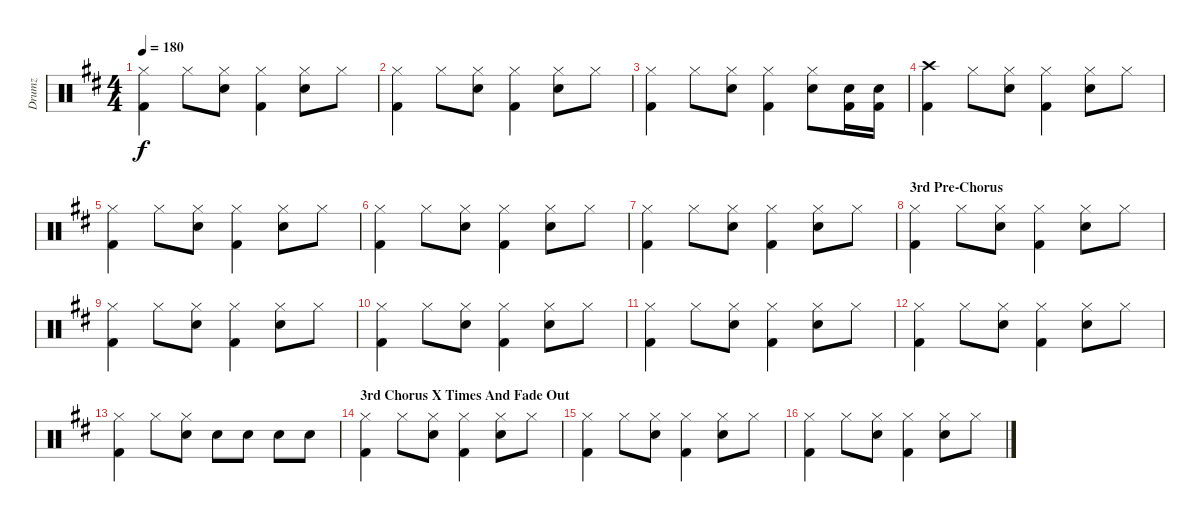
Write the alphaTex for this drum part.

\track ("Drumz" "Drumz") {instrument percussion}
\staff {score}
\articulation defaults
\ts (4 4)
\tempo 180
\clef neutral
\ks d
("Hi-Hat (closed)" "Kick (hit) 2").4{dy f} "Hi-Hat (closed)".8 ("Hi-Hat (closed)" "Snare (hit) 2").8 ("Hi-Hat (closed)" "Kick (hit) 2").4 ("Hi-Hat (closed)" "Snare (hit) 2").8 "Hi-Hat (closed)".8 |
("Hi-Hat (closed)" "Kick (hit) 2").4 "Hi-Hat (closed)".8 ("Hi-Hat (closed)" "Snare (hit) 2").8 ("Hi-Hat (closed)" "Kick (hit) 2").4 ("Hi-Hat (closed)" "Snare (hit) 2").8 "Hi-Hat (closed)".8 |
("Hi-Hat (closed)" "Kick (hit) 2").4 "Hi-Hat (closed)".8 ("Hi-Hat (closed)" "Snare (hit) 2").8 ("Hi-Hat (closed)" "Kick (hit) 2").4 ("Hi-Hat (closed)" "Snare (hit) 2").8 ("Kick (hit) 2" "Snare (hit) 2").16 ("Kick (hit) 2" "Snare (hit) 2").16 |
("Crash high (hit)" "Kick (hit) 2").4 "Hi-Hat (closed)".8 ("Hi-Hat (closed)" "Snare (hit) 2").8 ("Hi-Hat (closed)" "Kick (hit) 2").4 ("Hi-Hat (closed)" "Snare (hit) 2").8 "Hi-Hat (closed)".8 |
("Hi-Hat (closed)" "Kick (hit) 2").4 "Hi-Hat (closed)".8 ("Hi-Hat (closed)" "Snare (hit) 2").8 ("Hi-Hat (closed)" "Kick (hit) 2").4 ("Hi-Hat (closed)" "Snare (hit) 2").8 "Hi-Hat (closed)".8 |
("Hi-Hat (closed)" "Kick (hit) 2").4 "Hi-Hat (closed)".8 ("Hi-Hat (closed)" "Snare (hit) 2").8 ("Hi-Hat (closed)" "Kick (hit) 2").4 ("Hi-Hat (closed)" "Snare (hit) 2").8 "Hi-Hat (closed)".8 |
("Hi-Hat (closed)" "Kick (hit) 2").4 "Hi-Hat (closed)".8 ("Hi-Hat (closed)" "Snare (hit) 2").8 ("Hi-Hat (closed)" "Kick (hit) 2").4 ("Hi-Hat (closed)" "Snare (hit) 2").8 "Hi-Hat (closed)".8 |
\section ("" "3rd Pre-Chorus")
("Hi-Hat (closed)" "Kick (hit) 2").4 "Hi-Hat (closed)".8 ("Hi-Hat (closed)" "Snare (hit) 2").8 ("Hi-Hat (closed)" "Kick (hit) 2").4 ("Hi-Hat (closed)" "Snare (hit) 2").8 "Hi-Hat (closed)".8 |
("Hi-Hat (closed)" "Kick (hit) 2").4 "Hi-Hat (closed)".8 ("Hi-Hat (closed)" "Snare (hit) 2").8 ("Hi-Hat (closed)" "Kick (hit) 2").4 ("Hi-Hat (closed)" "Snare (hit) 2").8 "Hi-Hat (closed)".8 |
("Hi-Hat (closed)" "Kick (hit) 2").4 "Hi-Hat (closed)".8 ("Hi-Hat (closed)" "Snare (hit) 2").8 ("Hi-Hat (closed)" "Kick (hit) 2").4 ("Hi-Hat (closed)" "Snare (hit) 2").8 "Hi-Hat (closed)".8 |
("Hi-Hat (closed)" "Kick (hit) 2").4 "Hi-Hat (closed)".8 ("Hi-Hat (closed)" "Snare (hit) 2").8 ("Hi-Hat (closed)" "Kick (hit) 2").4 ("Hi-Hat (closed)" "Snare (hit) 2").8 "Hi-Hat (closed)".8 |
("Hi-Hat (closed)" "Kick (hit) 2").4 "Hi-Hat (closed)".8 ("Hi-Hat (closed)" "Snare (hit) 2").8 ("Hi-Hat (closed)" "Kick (hit) 2").4 ("Hi-Hat (closed)" "Snare (hit) 2").8 "Hi-Hat (closed)".8 |
("Hi-Hat (closed)" "Kick (hit) 2").4 "Hi-Hat (closed)".8 ("Hi-Hat (closed)" "Snare (hit) 2").8 "Snare (hit) 2".8 "Snare (hit) 2".8 "Snare (hit) 2".8 "Snare (hit) 2".8 |
\section ("" "3rd Chorus X Times And Fade Out")
("Hi-Hat (closed)" "Kick (hit) 2").4 "Hi-Hat (closed)".8 ("Hi-Hat (closed)" "Snare (hit) 2").8 ("Hi-Hat (closed)" "Kick (hit) 2").4 ("Hi-Hat (closed)" "Snare (hit) 2").8 "Hi-Hat (closed)".8 |
("Hi-Hat (closed)" "Kick (hit) 2").4 "Hi-Hat (closed)".8 ("Hi-Hat (closed)" "Snare (hit) 2").8 ("Hi-Hat (closed)" "Kick (hit) 2").4 ("Hi-Hat (closed)" "Snare (hit) 2").8 "Hi-Hat (closed)".8 |
("Hi-Hat (closed)" "Kick (hit) 2").4 "Hi-Hat (closed)".8 ("Hi-Hat (closed)" "Snare (hit) 2").8 ("Hi-Hat (closed)" "Kick (hit) 2").4 ("Hi-Hat (closed)" "Snare (hit) 2").8 "Hi-Hat (closed)".8
